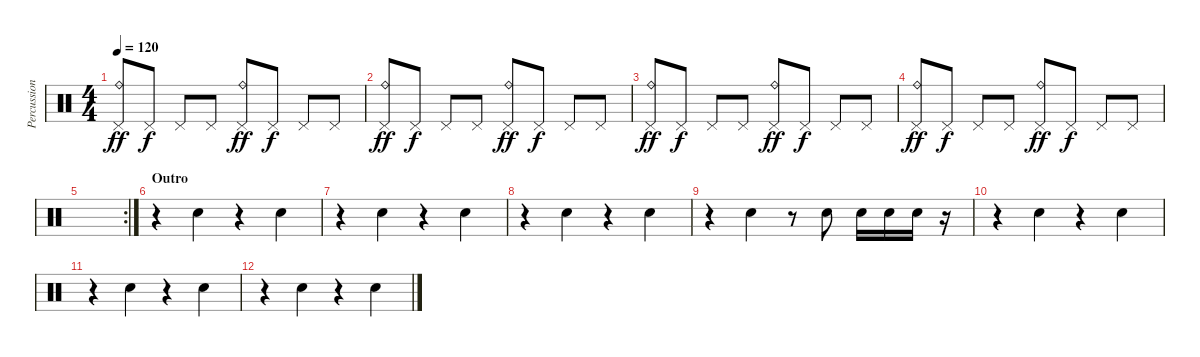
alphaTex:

\track ("Percussion 2" "Percussion") {instrument percussion}
\staff {score}
\articulation defaults
\ts (4 4)
\tempo 120
\clef neutral
\ks c
("Pedal Hi-Hat (hit)" "Ride (bell)").8{dy ff} "Pedal Hi-Hat (hit)".8{dy f} "Pedal Hi-Hat (hit)".8 "Pedal Hi-Hat (hit)".8 ("Pedal Hi-Hat (hit)" "Ride (bell)").8{dy ff} "Pedal Hi-Hat (hit)".8{dy f} "Pedal Hi-Hat (hit)".8 "Pedal Hi-Hat (hit)".8 |
("Pedal Hi-Hat (hit)" "Ride (bell)").8{dy ff} "Pedal Hi-Hat (hit)".8{dy f} "Pedal Hi-Hat (hit)".8 "Pedal Hi-Hat (hit)".8 ("Pedal Hi-Hat (hit)" "Ride (bell)").8{dy ff} "Pedal Hi-Hat (hit)".8{dy f} "Pedal Hi-Hat (hit)".8 "Pedal Hi-Hat (hit)".8 |
("Pedal Hi-Hat (hit)" "Ride (bell)").8{dy ff} "Pedal Hi-Hat (hit)".8{dy f} "Pedal Hi-Hat (hit)".8 "Pedal Hi-Hat (hit)".8 ("Pedal Hi-Hat (hit)" "Ride (bell)").8{dy ff} "Pedal Hi-Hat (hit)".8{dy f} "Pedal Hi-Hat (hit)".8 "Pedal Hi-Hat (hit)".8 |
("Pedal Hi-Hat (hit)" "Ride (bell)").8{dy ff} "Pedal Hi-Hat (hit)".8{dy f} "Pedal Hi-Hat (hit)".8 "Pedal Hi-Hat (hit)".8 ("Pedal Hi-Hat (hit)" "Ride (bell)").8{dy ff} "Pedal Hi-Hat (hit)".8{dy f} "Pedal Hi-Hat (hit)".8 "Pedal Hi-Hat (hit)".8 |
\rc 2
|
\section ("" "Outro")
r.4{volume 12} "Electric Snare (hit)".4 r.4 "Electric Snare (hit)".4 |
r.4 "Electric Snare (hit)".4 r.4 "Electric Snare (hit)".4 |
r.4 "Electric Snare (hit)".4 r.4 "Electric Snare (hit)".4 |
r.4 "Electric Snare (hit)".4 r.8 "Electric Snare (hit)".8 "Electric Snare (hit)".16 "Electric Snare (hit)".16 "Electric Snare (hit)".16 r.16 |
r.4 "Electric Snare (hit)".4 r.4 "Electric Snare (hit)".4 |
r.4 "Electric Snare (hit)".4 r.4 "Electric Snare (hit)".4 |
r.4 "Electric Snare (hit)".4 r.4 "Electric Snare (hit)".4
